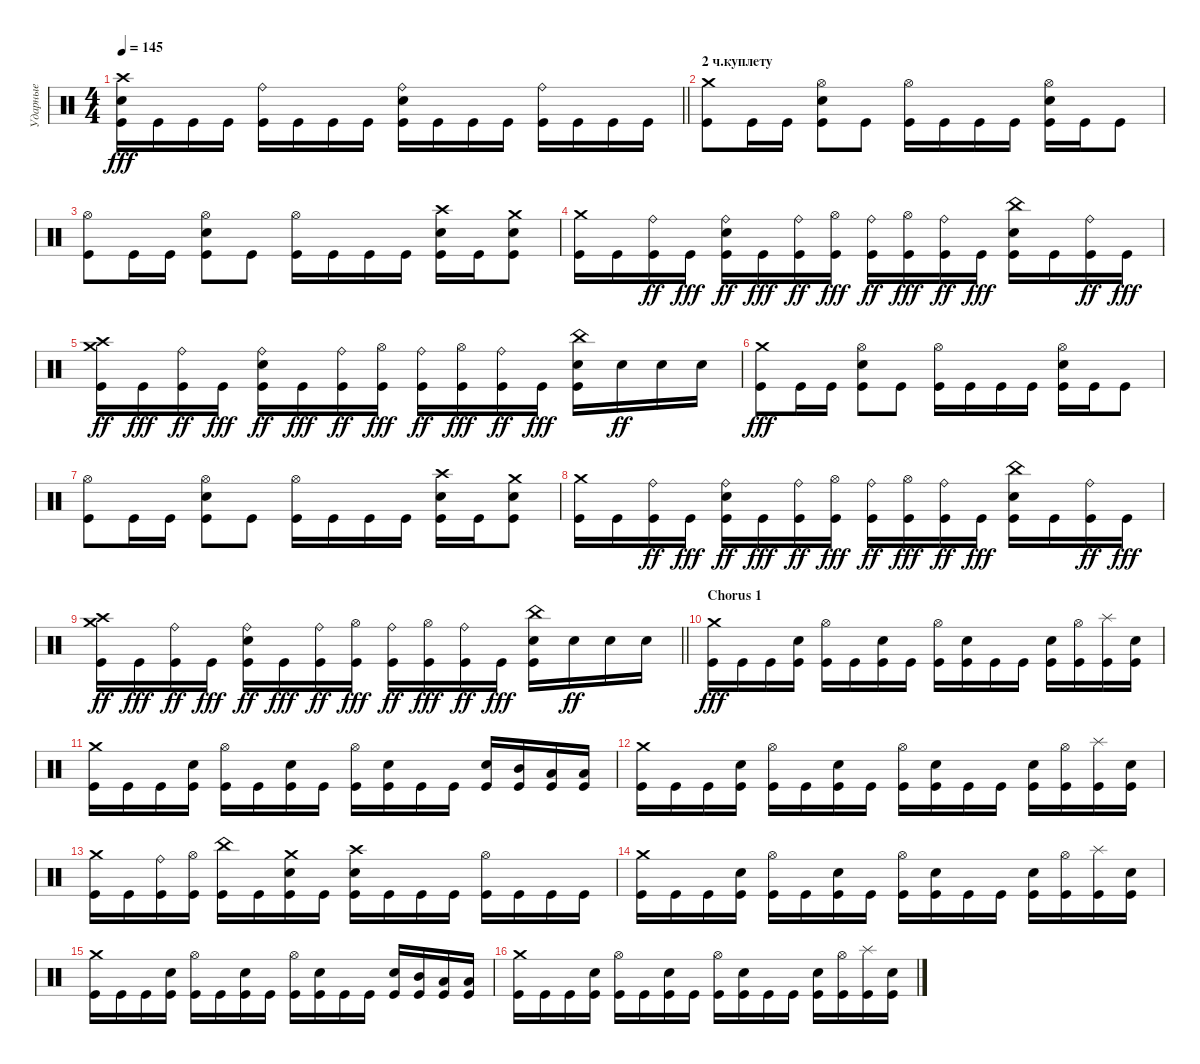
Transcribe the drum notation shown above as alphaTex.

\track ("Ударные" "Ударные") {instrument percussion}
\staff {score}
\articulation defaults
\ts (4 4)
\tempo 145
\clef neutral
\barLineRight lightlight
\ks c
("Kick (hit)" "Electric Snare (hit)" "Crash high (hit)").16{dy fff} "Kick (hit)".16 "Kick (hit)".16 "Kick (hit)".16 ("Kick (hit)" "Ride (bell)").16 "Kick (hit)".16 "Kick (hit)".16 "Kick (hit)".16 ("Kick (hit)" "Ride (bell)" "Electric Snare (hit)").16 "Kick (hit)".16 "Kick (hit)".16 "Kick (hit)".16 ("Kick (hit)" "Ride (bell)").16 "Kick (hit)".16 "Kick (hit)".16 "Kick (hit)".16 |
\section ("" "2 ч.куплету")
("Kick (hit)" "Crash medium (hit)").8 "Kick (hit)".16 "Kick (hit)".16 ("Kick (hit)" "Electric Snare (hit)" "Hi-Hat (open)").8 "Kick (hit)".8 ("Kick (hit)" "Hi-Hat (open)").16 "Kick (hit)".16 "Kick (hit)".16 "Kick (hit)".16 ("Kick (hit)" "Electric Snare (hit)" "Hi-Hat (open)").16 "Kick (hit)".16 "Kick (hit)".8 |
("Kick (hit)" "Hi-Hat (open)").8 "Kick (hit)".16 "Kick (hit)".16 ("Kick (hit)" "Electric Snare (hit)" "Hi-Hat (open)").8 "Kick (hit)".8 ("Kick (hit)" "Hi-Hat (open)").16 "Kick (hit)".16 "Kick (hit)".16 "Kick (hit)".16 ("Kick (hit)" "Electric Snare (hit)" "Crash high (hit)").16 "Kick (hit)".16 ("Kick (hit)" "Electric Snare (hit)" "Crash medium (hit)").8 |
("Kick (hit)" "Crash medium (hit)").16 "Kick (hit)".16 ("Kick (hit)" "Ride (bell)").16{dy ff} "Kick (hit)".16{dy fff} ("Kick (hit)" "Electric Snare (hit)" "Ride (bell)").16{dy ff} "Kick (hit)".16{dy fff} ("Kick (hit)" "Ride (bell)").16{dy ff} ("Kick (hit)" "Hi-Hat (open)").16{dy fff} ("Kick (hit)" "Ride (bell)").16{dy ff} ("Kick (hit)" "Hi-Hat (open)").16{dy fff} ("Kick (hit)" "Ride (bell)").16{dy ff} "Kick (hit)".16{dy fff} ("Kick (hit)" "Electric Snare (hit)" "China (hit)").16 "Kick (hit)".16 ("Kick (hit)" "Ride (bell)").16{dy ff} "Kick (hit)".16{dy fff} |
("Kick (hit)" "Crash medium (hit)" "Crash high (hit)").16{dy ff} "Kick (hit)".16{dy fff} ("Kick (hit)" "Ride (bell)").16{dy ff} "Kick (hit)".16{dy fff} ("Kick (hit)" "Electric Snare (hit)" "Ride (bell)").16{dy ff} "Kick (hit)".16{dy fff} ("Kick (hit)" "Ride (bell)").16{dy ff} ("Kick (hit)" "Hi-Hat (open)").16{dy fff} ("Kick (hit)" "Ride (bell)").16{dy ff} ("Kick (hit)" "Hi-Hat (open)").16{dy fff} ("Kick (hit)" "Ride (bell)").16{dy ff} "Kick (hit)".16{dy fff} ("Kick (hit)" "Electric Snare (hit)" "China (hit)").16 "Electric Snare (hit)".16{dy ff} "Electric Snare (hit)".16 "Electric Snare (hit)".16 |
("Kick (hit)" "Crash medium (hit)").8{dy fff} "Kick (hit)".16 "Kick (hit)".16 ("Kick (hit)" "Electric Snare (hit)" "Hi-Hat (open)").8 "Kick (hit)".8 ("Kick (hit)" "Hi-Hat (open)").16 "Kick (hit)".16 "Kick (hit)".16 "Kick (hit)".16 ("Kick (hit)" "Electric Snare (hit)" "Hi-Hat (open)").16 "Kick (hit)".16 "Kick (hit)".8 |
("Kick (hit)" "Hi-Hat (open)").8 "Kick (hit)".16 "Kick (hit)".16 ("Kick (hit)" "Electric Snare (hit)" "Hi-Hat (open)").8 "Kick (hit)".8 ("Kick (hit)" "Hi-Hat (open)").16 "Kick (hit)".16 "Kick (hit)".16 "Kick (hit)".16 ("Kick (hit)" "Electric Snare (hit)" "Crash high (hit)").16 "Kick (hit)".16 ("Kick (hit)" "Electric Snare (hit)" "Crash medium (hit)").8 |
("Kick (hit)" "Crash medium (hit)").16 "Kick (hit)".16 ("Kick (hit)" "Ride (bell)").16{dy ff} "Kick (hit)".16{dy fff} ("Kick (hit)" "Electric Snare (hit)" "Ride (bell)").16{dy ff} "Kick (hit)".16{dy fff} ("Kick (hit)" "Ride (bell)").16{dy ff} ("Kick (hit)" "Hi-Hat (open)").16{dy fff} ("Kick (hit)" "Ride (bell)").16{dy ff} ("Kick (hit)" "Hi-Hat (open)").16{dy fff} ("Kick (hit)" "Ride (bell)").16{dy ff} "Kick (hit)".16{dy fff} ("Kick (hit)" "Electric Snare (hit)" "China (hit)").16 "Kick (hit)".16 ("Kick (hit)" "Ride (bell)").16{dy ff} "Kick (hit)".16{dy fff} |
\barLineRight lightlight
("Kick (hit)" "Crash medium (hit)" "Crash high (hit)").16{dy ff} "Kick (hit)".16{dy fff} ("Kick (hit)" "Ride (bell)").16{dy ff} "Kick (hit)".16{dy fff} ("Kick (hit)" "Electric Snare (hit)" "Ride (bell)").16{dy ff} "Kick (hit)".16{dy fff} ("Kick (hit)" "Ride (bell)").16{dy ff} ("Kick (hit)" "Hi-Hat (open)").16{dy fff} ("Kick (hit)" "Ride (bell)").16{dy ff} ("Kick (hit)" "Hi-Hat (open)").16{dy fff} ("Kick (hit)" "Ride (bell)").16{dy ff} "Kick (hit)".16{dy fff} ("Kick (hit)" "Electric Snare (hit)" "China (hit)").16 "Electric Snare (hit)".16{dy ff} "Electric Snare (hit)".16 "Electric Snare (hit)".16 |
\section ("" "Chorus 1")
("Crash medium (hit)" "Kick (hit)").16{dy fff} "Kick (hit)".16 "Kick (hit)".16 ("Kick (hit)" "Electric Snare (hit)").16 ("Kick (hit)" "Hi-Hat (open)").16 "Kick (hit)".16 ("Kick (hit)" "Electric Snare (hit)").16 "Kick (hit)".16 ("Kick (hit)" "Hi-Hat (open)").16 ("Kick (hit)" "Electric Snare (hit)").16 "Kick (hit)".16 "Kick (hit)".16 ("Kick (hit)" "Electric Snare (hit)").16 ("Kick (hit)" "Hi-Hat (open)").16 ("Kick (hit)" "Splash (hit)").16 ("Kick (hit)" "Electric Snare (hit)").16 |
("Crash medium (hit)" "Kick (hit)").16 "Kick (hit)".16 "Kick (hit)".16 ("Kick (hit)" "Electric Snare (hit)").16 ("Kick (hit)" "Hi-Hat (open)").16 "Kick (hit)".16 ("Kick (hit)" "Electric Snare (hit)").16 "Kick (hit)".16 ("Kick (hit)" "Hi-Hat (open)").16 ("Kick (hit)" "Electric Snare (hit)").16 "Kick (hit)".16 "Kick (hit)".16 ("Kick (hit)" "Electric Snare (hit)").16 ("Kick (hit)" "Mid Tom (hit)").16 ("Kick (hit)" "Low Tom (hit)").16 ("Kick (hit)" "Low Tom (hit)").16 |
("Crash medium (hit)" "Kick (hit)").16 "Kick (hit)".16 "Kick (hit)".16 ("Kick (hit)" "Electric Snare (hit)").16 ("Kick (hit)" "Hi-Hat (open)").16 "Kick (hit)".16 ("Kick (hit)" "Electric Snare (hit)").16 "Kick (hit)".16 ("Kick (hit)" "Hi-Hat (open)").16 ("Kick (hit)" "Electric Snare (hit)").16 "Kick (hit)".16 "Kick (hit)".16 ("Kick (hit)" "Electric Snare (hit)").16 ("Kick (hit)" "Hi-Hat (open)").16 ("Kick (hit)" "Splash (hit)").16 ("Kick (hit)" "Electric Snare (hit)").16 |
("Crash medium (hit)" "Kick (hit)").16 "Kick (hit)".16 ("Kick (hit)" "Ride (bell)").16 ("Kick (hit)" "Hi-Hat (open)").16 ("Kick (hit)" "China (hit)").16 "Kick (hit)".16 ("Kick (hit)" "Electric Snare (hit)" "Crash medium (hit)").16 "Kick (hit)".16 ("Kick (hit)" "Crash high (hit)" "Electric Snare (hit)").16 "Kick (hit)".16 "Kick (hit)".16 "Kick (hit)".16 ("Kick (hit)" "Hi-Hat (open)").16 "Kick (hit)".16 "Kick (hit)".16 "Kick (hit)".16 |
("Crash medium (hit)" "Kick (hit)").16 "Kick (hit)".16 "Kick (hit)".16 ("Kick (hit)" "Electric Snare (hit)").16 ("Kick (hit)" "Hi-Hat (open)").16 "Kick (hit)".16 ("Kick (hit)" "Electric Snare (hit)").16 "Kick (hit)".16 ("Kick (hit)" "Hi-Hat (open)").16 ("Kick (hit)" "Electric Snare (hit)").16 "Kick (hit)".16 "Kick (hit)".16 ("Kick (hit)" "Electric Snare (hit)").16 ("Kick (hit)" "Hi-Hat (open)").16 ("Kick (hit)" "Splash (hit)").16 ("Kick (hit)" "Electric Snare (hit)").16 |
("Crash medium (hit)" "Kick (hit)").16 "Kick (hit)".16 "Kick (hit)".16 ("Kick (hit)" "Electric Snare (hit)").16 ("Kick (hit)" "Hi-Hat (open)").16 "Kick (hit)".16 ("Kick (hit)" "Electric Snare (hit)").16 "Kick (hit)".16 ("Kick (hit)" "Hi-Hat (open)").16 ("Kick (hit)" "Electric Snare (hit)").16 "Kick (hit)".16 "Kick (hit)".16 ("Kick (hit)" "Electric Snare (hit)").16 ("Kick (hit)" "Mid Tom (hit)").16 ("Kick (hit)" "Low Tom (hit)").16 ("Kick (hit)" "Low Tom (hit)").16 |
("Crash medium (hit)" "Kick (hit)").16 "Kick (hit)".16 "Kick (hit)".16 ("Kick (hit)" "Electric Snare (hit)").16 ("Kick (hit)" "Hi-Hat (open)").16 "Kick (hit)".16 ("Kick (hit)" "Electric Snare (hit)").16 "Kick (hit)".16 ("Kick (hit)" "Hi-Hat (open)").16 ("Kick (hit)" "Electric Snare (hit)").16 "Kick (hit)".16 "Kick (hit)".16 ("Kick (hit)" "Electric Snare (hit)").16 ("Kick (hit)" "Hi-Hat (open)").16 ("Kick (hit)" "Splash (hit)").16 ("Kick (hit)" "Electric Snare (hit)").16
